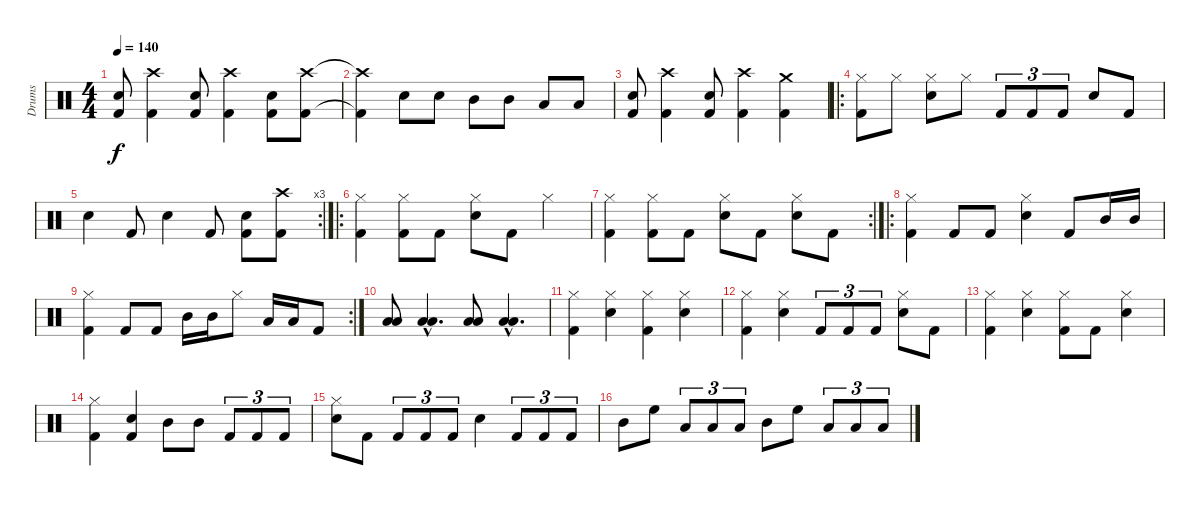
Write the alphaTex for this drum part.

\track ("Drums" "Drums") {instrument percussion}
\staff {score}
\articulation defaults
\ts (4 4)
\tempo 140
\clef neutral
\ks c
("Kick (hit) 2" "Snare (hit) 2").8{dy f} ("Kick (hit) 2" "Crash high (hit)").4 ("Kick (hit) 2" "Snare (hit) 2").8 ("Kick (hit) 2" "Crash high (hit)").4 ("Kick (hit) 2" "Snare (hit) 2").8 ("Crash high (hit)" "Kick (hit) 2").8 |
("Crash high (hit)"{t} "Kick (hit) 2"{t}).4 "Snare (hit) 2".8 "Snare (hit) 2".8 "Mid Tom (hit)".8 "Mid Tom (hit)".8 "Low Tom (hit)".8 "Low Tom (hit)".8 |
("Kick (hit) 2" "Snare (hit) 2").8 ("Crash high (hit)" "Kick (hit) 2").4 ("Kick (hit) 2" "Snare (hit) 2").8 ("Crash high (hit)" "Kick (hit) 2").4 ("Crash medium (hit)" "Kick (hit) 2").4 |
\ro
("Hi-Hat (closed)" "Kick (hit) 2").8 "Hi-Hat (closed)".8 ("Hi-Hat (closed)" "Snare (hit) 2").8 "Hi-Hat (closed)".8 "Kick (hit) 2".8{tu (3 2)} "Kick (hit) 2".8{tu (3 2)} "Kick (hit) 2".8{tu (3 2)} "Snare (hit) 2".8 "Kick (hit) 2".8 |
\rc 3 "Snare (hit) 2".4 "Kick (hit) 2".8 "Snare (hit) 2".4 "Kick (hit) 2".8
("Snare (hit) 2" "Kick (hit) 2").8 ("Crash high (hit)" "Kick (hit) 2").8 |
\ro
("Kick (hit) 2" "Hi-Hat (closed)").4 ("Hi-Hat (closed)" "Kick (hit) 2").8 "Kick (hit) 2".8 ("Hi-Hat (closed)" "Snare (hit) 2").8 "Kick (hit) 2".8 "Hi-Hat (closed)".4 |
\rc 2
("Kick (hit) 2" "Hi-Hat (closed)").4 ("Hi-Hat (closed)" "Kick (hit) 2").8 "Kick (hit) 2".8 ("Hi-Hat (closed)" "Snare (hit) 2").8 "Kick (hit) 2".8 ("Hi-Hat (closed)" "Snare (hit) 2").8 "Kick (hit) 2".8 |
\ro
("Hi-Hat (closed)" "Kick (hit) 2").4 "Kick (hit) 2".8 "Kick (hit) 2".8 ("Hi-Hat (closed)" "Snare (hit) 2").4 "Kick (hit) 2".8 "Mid Tom (hit)".16 "Mid Tom (hit)".16 |
\rc 2
("Hi-Hat (closed)" "Kick (hit) 2").4 "Kick (hit) 2".8 "Kick (hit) 2".8 "Mid Tom (hit)".16 "Mid Tom (hit)".16 "Hi-Hat (closed)".8 "Low Tom (hit)".16 "Low Tom (hit)".16 "Kick (hit) 2".8 |
("Low Tom (hit)" "Low Floor Tom (hit)").8 ("Low Tom (hit)"{hac} "Low Floor Tom (hit)"{hac}).4{d} ("Low Floor Tom (hit)" "Low Tom (hit)").8 ("Low Floor Tom (hit)"{hac} "Low Tom (hit)"{hac}).4{d} |
("Hi-Hat (closed)" "Kick (hit) 2").4 ("Hi-Hat (closed)" "Snare (hit) 2").4 ("Hi-Hat (closed)" "Kick (hit) 2").4 ("Hi-Hat (closed)" "Snare (hit) 2").4 |
("Kick (hit) 2" "Hi-Hat (closed)").4 ("Hi-Hat (closed)" "Snare (hit) 2").4 "Kick (hit) 2".8{tu (3 2)} "Kick (hit) 2".8{tu (3 2)} "Kick (hit) 2".8{tu (3 2)} ("Hi-Hat (closed)" "Snare (hit) 2").8 "Kick (hit) 2".8 |
("Hi-Hat (closed)" "Kick (hit) 2").4 ("Hi-Hat (closed)" "Snare (hit) 2").4 ("Hi-Hat (closed)" "Kick (hit) 2").8 "Kick (hit) 2".8 ("Hi-Hat (closed)" "Snare (hit) 2").4 |
("Hi-Hat (closed)" "Kick (hit) 2").4 ("Snare (hit) 2" "Kick (hit) 2").4 "Mid Tom (hit)".8 "Mid Tom (hit)".8 "Kick (hit) 2".8{tu (3 2)} "Kick (hit) 2".8{tu (3 2)} "Kick (hit) 2".8{tu (3 2)} |
("Snare (hit) 2" "Hi-Hat (closed)").8 "Kick (hit) 2".8 "Kick (hit) 2".8{tu (3 2)} "Kick (hit) 2".8{tu (3 2)} "Kick (hit) 2".8{tu (3 2)} "Snare (hit) 2".4 "Kick (hit) 2".8{tu (3 2)} "Kick (hit) 2".8{tu (3 2)} "Kick (hit) 2".8{tu (3 2)} |
"Mid Tom (hit)".8 "High Floor Tom (hit)".8 "Low Tom (hit)".8{tu (3 2)} "Low Tom (hit)".8{tu (3 2)} "Low Tom (hit)".8{tu (3 2)} "Mid Tom (hit)".8 "High Floor Tom (hit)".8 "Low Floor Tom (hit)".8{tu (3 2)} "Low Tom (hit)".8{tu (3 2)} "Low Floor Tom (hit)".8{tu (3 2)}
